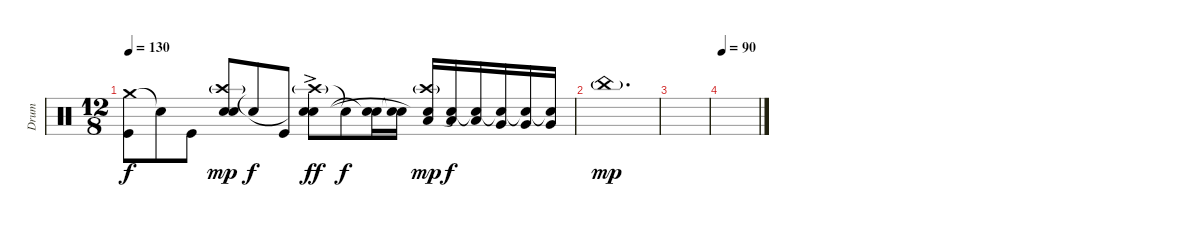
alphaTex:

\track ("Drum" "Drum") {instrument percussion}
\staff {score}
\articulation defaults
\ts (12 8)
\tempo 130
\clef neutral
\ks c
("Crash medium (hit)" "Kick (hit)").8{dy f} "Snare (hit)"{t}.8 "Kick (hit)".8 ("Crash high (hit)"{g} "Electric Snare (hit)" "Snare (hit)"{t}).8{dy mp} "Snare (hit)"{t}.8{dy f} "Kick (hit)".8 ("Crash high (hit)"{g} "Electric Snare (hit)"{ac} "Snare (hit)"{t}).8{dy ff} "Snare (hit)"{t}.8{dy f} ("Electric Snare (hit)" "Snare (hit)"{t}).16 ("Electric Snare (hit)" "Snare (hit)"{t}).16 ("Crash high (hit)"{g} "Low Tom (hit)" "Snare (hit)"{t}).16{dy mp} ("Low Tom (hit)" "Snare (hit)"{t}).16{dy f} ("Low Tom (hit)" "Snare (hit)"{t}).16 ("Very Low Tom (hit)" "Snare (hit)"{t}).16 ("Very Low Tom (hit)" "Snare (hit)"{t}).16 ("Very Low Tom (hit)" "Snare (hit)"{t}).16 |
"China (hit)"{g}.1{d dy mp} |
|
\tempo 90
